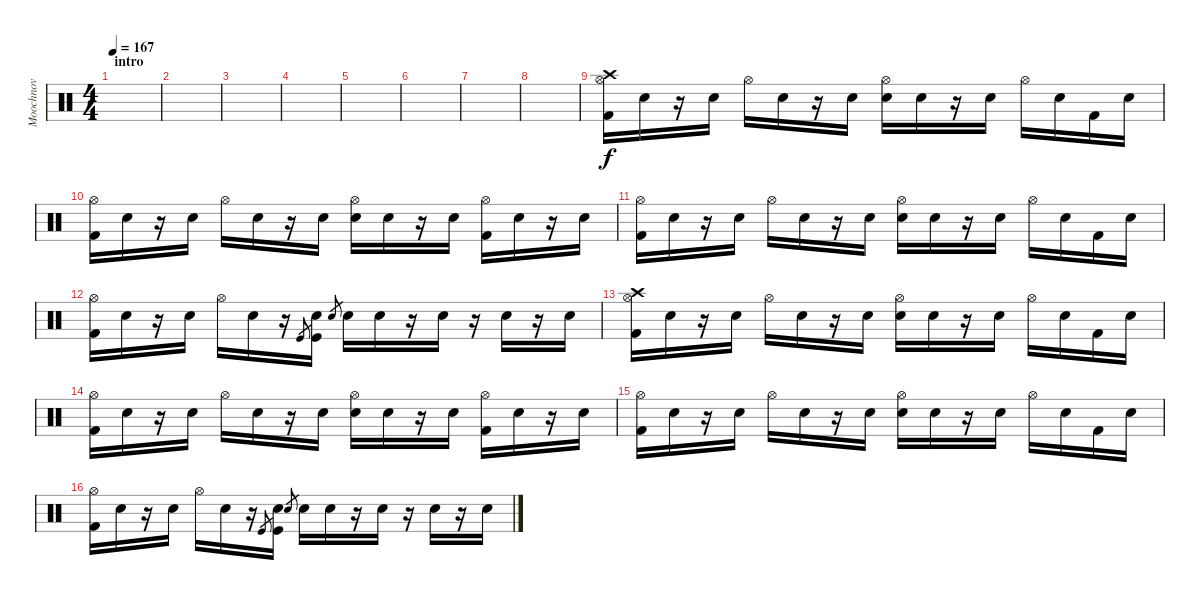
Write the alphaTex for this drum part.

\track ("Moochnov" "Moochnov") {instrument percussion}
\staff {score}
\articulation defaults
\ts (4 4)
\section ("" "intro")
\tempo 167
\clef neutral
\ks c
|
|
|
|
|
|
|
|
("Hi-Hat (open)" "Kick (hit) 2" "Crash high (hit)").16 "Snare (hit)"{x}.16 r.16 "Snare (hit)"{x}.16 "Hi-Hat (open)".16 "Snare (hit)"{x}.16 r.16 "Snare (hit)"{x}.16 ("Hi-Hat (open)" "Snare (hit) 2").16 "Snare (hit)"{x}.16 r.16 "Snare (hit)"{x}.16 "Hi-Hat (open)".16 "Snare (hit)"{x}.16 "Kick (hit) 2".16 "Snare (hit)"{x}.16 |
("Hi-Hat (open)" "Kick (hit) 2").16 "Snare (hit)"{x}.16 r.16 "Snare (hit)"{x}.16 "Hi-Hat (open)".16 "Snare (hit)"{x}.16 r.16 "Snare (hit)"{x}.16 ("Hi-Hat (open)" "Snare (hit) 2").16 "Snare (hit)"{x}.16 r.16 "Snare (hit)"{x}.16 ("Hi-Hat (open)" "Kick (hit) 2").16 "Snare (hit)"{x}.16 r.16 "Snare (hit)"{x}.16 |
("Hi-Hat (open)" "Kick (hit) 2").16 "Snare (hit)"{x}.16 r.16 "Snare (hit)"{x}.16 "Hi-Hat (open)".16 "Snare (hit)"{x}.16 r.16 "Snare (hit)"{x}.16 ("Hi-Hat (open)" "Snare (hit) 2").16 "Snare (hit)"{x}.16 r.16 "Snare (hit)"{x}.16 "Hi-Hat (open)".16 "Snare (hit)"{x}.16 "Kick (hit) 2".16 "Snare (hit)"{x}.16 |
("Hi-Hat (open)" "Kick (hit) 2").16 "Snare (hit)"{x}.16 r.16 "Snare (hit)"{x}.16 "Hi-Hat (open)".16 "Snare (hit)"{x}.16 r.16 "Kick (hit)".8{gr} ("Snare (hit)"{x} "Kick (hit)").16 "Snare (hit) 2".8{gr} "Snare (hit) 2".16 "Snare (hit)"{x}.16 r.16 "Snare (hit)"{x}.16 r.16 "Snare (hit)"{x}.16 r.16 "Snare (hit)"{x}.16 |
("Hi-Hat (open)" "Kick (hit) 2" "Crash high (hit)").16 "Snare (hit)"{x}.16 r.16 "Snare (hit)"{x}.16 "Hi-Hat (open)".16 "Snare (hit)"{x}.16 r.16 "Snare (hit)"{x}.16 ("Hi-Hat (open)" "Snare (hit) 2").16 "Snare (hit)"{x}.16 r.16 "Snare (hit)"{x}.16 "Hi-Hat (open)".16 "Snare (hit)"{x}.16 "Kick (hit) 2".16 "Snare (hit)"{x}.16 |
("Hi-Hat (open)" "Kick (hit) 2").16 "Snare (hit)"{x}.16 r.16 "Snare (hit)"{x}.16 "Hi-Hat (open)".16 "Snare (hit)"{x}.16 r.16 "Snare (hit)"{x}.16 ("Hi-Hat (open)" "Snare (hit) 2").16 "Snare (hit)"{x}.16 r.16 "Snare (hit)"{x}.16 ("Hi-Hat (open)" "Kick (hit) 2").16 "Snare (hit)"{x}.16 r.16 "Snare (hit)"{x}.16 |
("Hi-Hat (open)" "Kick (hit) 2").16 "Snare (hit)"{x}.16 r.16 "Snare (hit)"{x}.16 "Hi-Hat (open)".16 "Snare (hit)"{x}.16 r.16 "Snare (hit)"{x}.16 ("Hi-Hat (open)" "Snare (hit) 2").16 "Snare (hit)"{x}.16 r.16 "Snare (hit)"{x}.16 "Hi-Hat (open)".16 "Snare (hit)"{x}.16 "Kick (hit) 2".16 "Snare (hit)"{x}.16 |
("Hi-Hat (open)" "Kick (hit) 2").16 "Snare (hit)"{x}.16 r.16 "Snare (hit)"{x}.16 "Hi-Hat (open)".16 "Snare (hit)"{x}.16 r.16 "Kick (hit)".8{gr} ("Snare (hit)"{x} "Kick (hit)").16 "Snare (hit) 2".8{gr} "Snare (hit) 2".16 "Snare (hit)"{x}.16 r.16 "Snare (hit)"{x}.16 r.16 "Snare (hit)"{x}.16 r.16 "Snare (hit)"{x}.16
